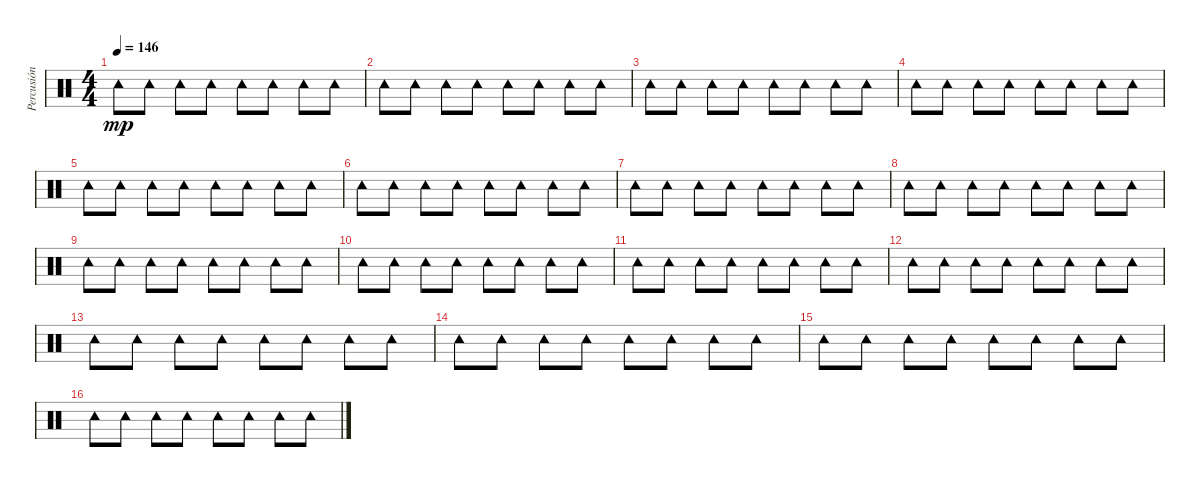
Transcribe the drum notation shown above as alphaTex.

\track ("Percusión" "Percusión") {instrument percussion}
\staff {score}
\articulation defaults
\ts (4 4)
\tempo 146
\clef neutral
\ks c "Tambourine (hit)".8{dy mp} "Tambourine (hit)".8 "Tambourine (hit)".8 "Tambourine (hit)".8 "Tambourine (hit)".8 "Tambourine (hit)".8 "Tambourine (hit)".8 "Tambourine (hit)".8
|
"Tambourine (hit)".8 "Tambourine (hit)".8 "Tambourine (hit)".8 "Tambourine (hit)".8 "Tambourine (hit)".8 "Tambourine (hit)".8 "Tambourine (hit)".8 "Tambourine (hit)".8 |
"Tambourine (hit)".8 "Tambourine (hit)".8 "Tambourine (hit)".8 "Tambourine (hit)".8 "Tambourine (hit)".8 "Tambourine (hit)".8 "Tambourine (hit)".8 "Tambourine (hit)".8 |
"Tambourine (hit)".8 "Tambourine (hit)".8 "Tambourine (hit)".8 "Tambourine (hit)".8 "Tambourine (hit)".8 "Tambourine (hit)".8 "Tambourine (hit)".8 "Tambourine (hit)".8 |
"Tambourine (hit)".8 "Tambourine (hit)".8 "Tambourine (hit)".8 "Tambourine (hit)".8 "Tambourine (hit)".8 "Tambourine (hit)".8 "Tambourine (hit)".8 "Tambourine (hit)".8 |
"Tambourine (hit)".8 "Tambourine (hit)".8 "Tambourine (hit)".8 "Tambourine (hit)".8 "Tambourine (hit)".8 "Tambourine (hit)".8 "Tambourine (hit)".8 "Tambourine (hit)".8 |
"Tambourine (hit)".8 "Tambourine (hit)".8 "Tambourine (hit)".8 "Tambourine (hit)".8 "Tambourine (hit)".8 "Tambourine (hit)".8 "Tambourine (hit)".8 "Tambourine (hit)".8 |
"Tambourine (hit)".8 "Tambourine (hit)".8 "Tambourine (hit)".8 "Tambourine (hit)".8 "Tambourine (hit)".8 "Tambourine (hit)".8 "Tambourine (hit)".8 "Tambourine (hit)".8 |
"Tambourine (hit)".8 "Tambourine (hit)".8 "Tambourine (hit)".8 "Tambourine (hit)".8 "Tambourine (hit)".8 "Tambourine (hit)".8 "Tambourine (hit)".8 "Tambourine (hit)".8 |
"Tambourine (hit)".8 "Tambourine (hit)".8 "Tambourine (hit)".8 "Tambourine (hit)".8 "Tambourine (hit)".8 "Tambourine (hit)".8 "Tambourine (hit)".8 "Tambourine (hit)".8 |
"Tambourine (hit)".8 "Tambourine (hit)".8 "Tambourine (hit)".8 "Tambourine (hit)".8 "Tambourine (hit)".8 "Tambourine (hit)".8 "Tambourine (hit)".8 "Tambourine (hit)".8 |
"Tambourine (hit)".8 "Tambourine (hit)".8 "Tambourine (hit)".8 "Tambourine (hit)".8 "Tambourine (hit)".8 "Tambourine (hit)".8 "Tambourine (hit)".8 "Tambourine (hit)".8 |
"Tambourine (hit)".8 "Tambourine (hit)".8 "Tambourine (hit)".8 "Tambourine (hit)".8 "Tambourine (hit)".8 "Tambourine (hit)".8 "Tambourine (hit)".8 "Tambourine (hit)".8 |
"Tambourine (hit)".8 "Tambourine (hit)".8 "Tambourine (hit)".8 "Tambourine (hit)".8 "Tambourine (hit)".8 "Tambourine (hit)".8 "Tambourine (hit)".8 "Tambourine (hit)".8 |
"Tambourine (hit)".8 "Tambourine (hit)".8 "Tambourine (hit)".8 "Tambourine (hit)".8 "Tambourine (hit)".8 "Tambourine (hit)".8 "Tambourine (hit)".8 "Tambourine (hit)".8 |
"Tambourine (hit)".8 "Tambourine (hit)".8 "Tambourine (hit)".8 "Tambourine (hit)".8 "Tambourine (hit)".8 "Tambourine (hit)".8 "Tambourine (hit)".8 "Tambourine (hit)".8
